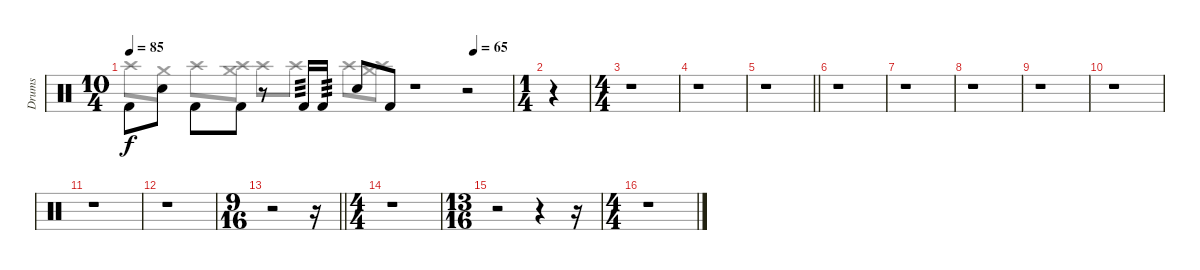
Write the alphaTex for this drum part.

\track ("Drums" "Drums") {instrument percussion}
\staff {score}
\articulation defaults
\voice
\ts (10 4)
\tempo 85
\tempo (65 0.9)
\clef neutral
\ks c "Kick (hit) 2".8{dy f beam Down} "Electric Snare (hit)".8{beam Down} "Kick (hit) 2".8{beam Down} "Kick (hit) 2".8{beam Down}
r.8 "Kick (hit) 2".16{tp 3} "Kick (hit) 2".16{tp 3} "Electric Snare (hit)".8 "Kick (hit) 2".8 r.1 r.2 |
\ts (1 4)
r.4 |
\ts (4 4)
r.1 |
r.1 |
\barLineRight lightlight
r.1 |
\section ("" "")
r.1 |
r.1 |
r.1 |
r.1 |
r.1 |
r.1 |
r.1 |
\ts (9 16)
\barLineRight lightlight
r.2 r.16 |
\ts (4 4)
\section ("" "")
r.1 |
\ts (13 16)
r.2 r.4 r.16 |
\ts (4 4)
r.1
\voice
\clef neutral
\ottava regular
\simile none
\ks c "Crash high (hit)".8{dy f} "Crash medium (hit)".8 "Crash high (hit)".8
("Crash high (hit)" "Crash medium (hit)").8 "Crash high (hit)".8 "Crash high (hit)".8 "Crash high (hit)".8 ("Crash high (hit)" "Crash medium (hit)").8 r.1 r.2 |
|
|
|
\barLineRight lightlight
|
|
|
|
|
|
|
|
\barLineRight lightlight
|
|
|
